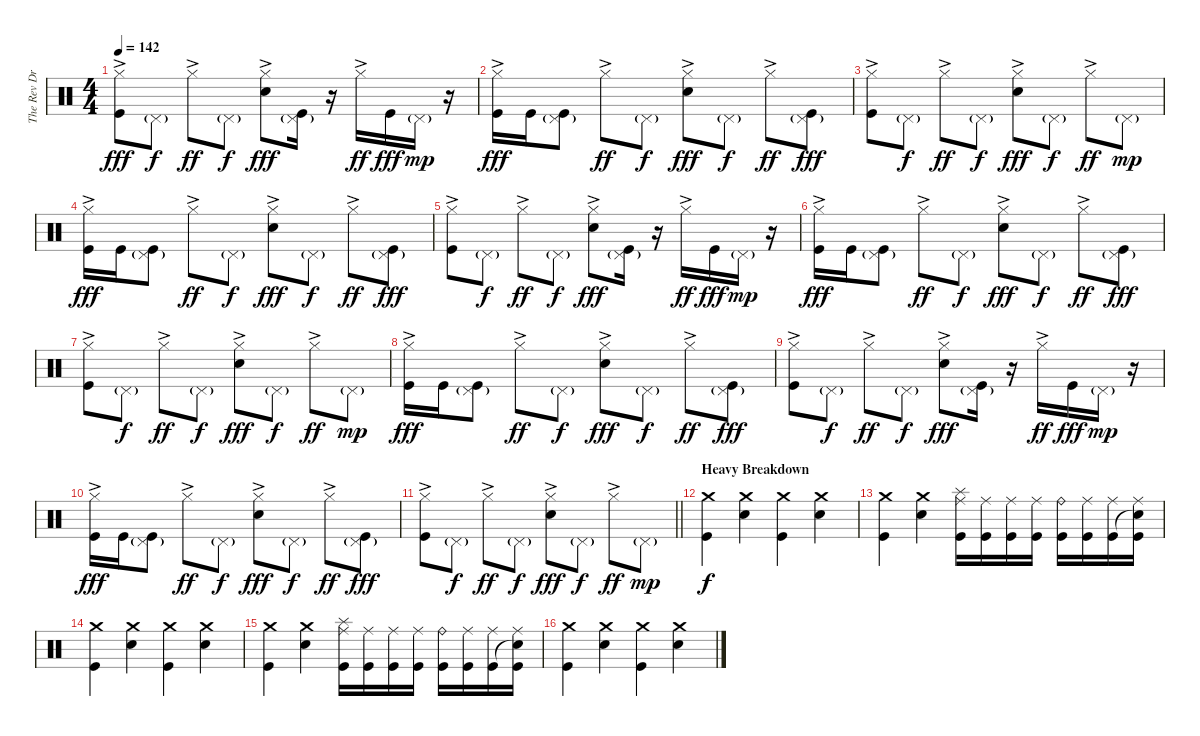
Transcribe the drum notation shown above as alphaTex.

\track ("The Rev Drums" "The Rev Dr") {instrument percussion}
\staff {score}
\articulation defaults
\ts (4 4)
\tempo 142
\clef neutral
\ks c
("Hi-Hat (closed)"{ac} "Kick (hit)").8{dy fff} "Pedal Hi-Hat (hit)"{g}.8{dy f} "Hi-Hat (closed)"{ac}.8{dy ff} "Pedal Hi-Hat (hit)"{g}.8{dy f} ("Hi-Hat (closed)"{ac} "Electric Snare (hit)").8{dy fff} ("Pedal Hi-Hat (hit)"{g} "Kick (hit)").16 r.16 "Hi-Hat (closed)"{ac}.16{dy ff} "Kick (hit)".16{dy fff} "Pedal Hi-Hat (hit)"{g}.16{dy mp} r.16 |
("Hi-Hat (closed)"{ac} "Kick (hit)").16{dy fff} "Kick (hit)".16 ("Pedal Hi-Hat (hit)"{g} "Kick (hit)").8 "Hi-Hat (closed)"{ac}.8{dy ff} "Pedal Hi-Hat (hit)"{g}.8{dy f} ("Hi-Hat (closed)"{ac} "Electric Snare (hit)").8{dy fff} "Pedal Hi-Hat (hit)"{g}.8{dy f} "Hi-Hat (closed)"{ac}.8{dy ff} ("Pedal Hi-Hat (hit)"{g} "Kick (hit)").8{dy fff} |
("Hi-Hat (closed)"{ac} "Kick (hit)").8 "Pedal Hi-Hat (hit)"{g}.8{dy f} "Hi-Hat (closed)"{ac}.8{dy ff} "Pedal Hi-Hat (hit)"{g}.8{dy f} ("Hi-Hat (closed)"{ac} "Electric Snare (hit)").8{dy fff} "Pedal Hi-Hat (hit)"{g}.8{dy f} "Hi-Hat (closed)"{ac}.8{dy ff} "Pedal Hi-Hat (hit)"{g}.8{dy mp} |
("Hi-Hat (closed)"{ac} "Kick (hit)").16{dy fff} "Kick (hit)".16 ("Pedal Hi-Hat (hit)"{g} "Kick (hit)").8 "Hi-Hat (closed)"{ac}.8{dy ff} "Pedal Hi-Hat (hit)"{g}.8{dy f} ("Hi-Hat (closed)"{ac} "Electric Snare (hit)").8{dy fff} "Pedal Hi-Hat (hit)"{g}.8{dy f} "Hi-Hat (closed)"{ac}.8{dy ff} ("Pedal Hi-Hat (hit)"{g} "Kick (hit)").8{dy fff} |
("Hi-Hat (closed)"{ac} "Kick (hit)").8 "Pedal Hi-Hat (hit)"{g}.8{dy f} "Hi-Hat (closed)"{ac}.8{dy ff} "Pedal Hi-Hat (hit)"{g}.8{dy f} ("Hi-Hat (closed)"{ac} "Electric Snare (hit)").8{dy fff} ("Pedal Hi-Hat (hit)"{g} "Kick (hit)").16 r.16 "Hi-Hat (closed)"{ac}.16{dy ff} "Kick (hit)".16{dy fff} "Pedal Hi-Hat (hit)"{g}.16{dy mp} r.16 |
("Hi-Hat (closed)"{ac} "Kick (hit)").16{dy fff} "Kick (hit)".16 ("Pedal Hi-Hat (hit)"{g} "Kick (hit)").8 "Hi-Hat (closed)"{ac}.8{dy ff} "Pedal Hi-Hat (hit)"{g}.8{dy f} ("Hi-Hat (closed)"{ac} "Electric Snare (hit)").8{dy fff} "Pedal Hi-Hat (hit)"{g}.8{dy f} "Hi-Hat (closed)"{ac}.8{dy ff} ("Pedal Hi-Hat (hit)"{g} "Kick (hit)").8{dy fff} |
("Hi-Hat (closed)"{ac} "Kick (hit)").8 "Pedal Hi-Hat (hit)"{g}.8{dy f} "Hi-Hat (closed)"{ac}.8{dy ff} "Pedal Hi-Hat (hit)"{g}.8{dy f} ("Hi-Hat (closed)"{ac} "Electric Snare (hit)").8{dy fff} "Pedal Hi-Hat (hit)"{g}.8{dy f} "Hi-Hat (closed)"{ac}.8{dy ff} "Pedal Hi-Hat (hit)"{g}.8{dy mp} |
("Hi-Hat (closed)"{ac} "Kick (hit)").16{dy fff} "Kick (hit)".16 ("Pedal Hi-Hat (hit)"{g} "Kick (hit)").8 "Hi-Hat (closed)"{ac}.8{dy ff} "Pedal Hi-Hat (hit)"{g}.8{dy f} ("Hi-Hat (closed)"{ac} "Electric Snare (hit)").8{dy fff} "Pedal Hi-Hat (hit)"{g}.8{dy f} "Hi-Hat (closed)"{ac}.8{dy ff} ("Pedal Hi-Hat (hit)"{g} "Kick (hit)").8{dy fff} |
("Hi-Hat (closed)"{ac} "Kick (hit)").8 "Pedal Hi-Hat (hit)"{g}.8{dy f} "Hi-Hat (closed)"{ac}.8{dy ff} "Pedal Hi-Hat (hit)"{g}.8{dy f} ("Hi-Hat (closed)"{ac} "Electric Snare (hit)").8{dy fff} ("Pedal Hi-Hat (hit)"{g} "Kick (hit)").16 r.16 "Hi-Hat (closed)"{ac}.16{dy ff} "Kick (hit)".16{dy fff} "Pedal Hi-Hat (hit)"{g}.16{dy mp} r.16 |
("Hi-Hat (closed)"{ac} "Kick (hit)").16{dy fff} "Kick (hit)".16 ("Pedal Hi-Hat (hit)"{g} "Kick (hit)").8 "Hi-Hat (closed)"{ac}.8{dy ff} "Pedal Hi-Hat (hit)"{g}.8{dy f} ("Hi-Hat (closed)"{ac} "Electric Snare (hit)").8{dy fff} "Pedal Hi-Hat (hit)"{g}.8{dy f} "Hi-Hat (closed)"{ac}.8{dy ff} ("Pedal Hi-Hat (hit)"{g} "Kick (hit)").8{dy fff} |
\barLineRight lightlight
("Hi-Hat (closed)"{ac} "Kick (hit)").8 "Pedal Hi-Hat (hit)"{g}.8{dy f} "Hi-Hat (closed)"{ac}.8{dy ff} "Pedal Hi-Hat (hit)"{g}.8{dy f} ("Hi-Hat (closed)"{ac} "Electric Snare (hit)").8{dy fff} "Pedal Hi-Hat (hit)"{g}.8{dy f} "Hi-Hat (closed)"{ac}.8{dy ff} "Pedal Hi-Hat (hit)"{g}.8{dy mp} |
\section ("" "Heavy Breakdown")
("Crash medium (hit)" "Kick (hit)").4{dy f} ("Crash medium (hit)" "Electric Snare (hit)").4 ("Crash medium (hit)" "Kick (hit)").4 ("Crash medium (hit)" "Electric Snare (hit)").4 |
("Crash medium (hit)" "Kick (hit)").4 ("Crash medium (hit)" "Electric Snare (hit)").4 ("Splash (hit)" "Ride (middle)" "Kick (hit)").16 ("Ride (middle)" "Kick (hit)").16 ("Ride (middle)" "Kick (hit)").16 ("Ride (middle)" "Kick (hit)").16 ("Ride (bell)" "Kick (hit)").16 ("Ride (middle)" "Kick (hit)").16 ("Ride (middle)" "Kick (hit)").16 ("Ride (middle)" "Snare (hit)"{t} "Kick (hit)").16 |
("Crash medium (hit)" "Kick (hit)").4 ("Crash medium (hit)" "Electric Snare (hit)").4 ("Crash medium (hit)" "Kick (hit)").4 ("Crash medium (hit)" "Electric Snare (hit)").4 |
("Crash medium (hit)" "Kick (hit)").4 ("Crash medium (hit)" "Electric Snare (hit)").4 ("Splash (hit)" "Ride (middle)" "Kick (hit)").16 ("Ride (middle)" "Kick (hit)").16 ("Ride (middle)" "Kick (hit)").16 ("Ride (middle)" "Kick (hit)").16 ("Ride (bell)" "Kick (hit)").16 ("Ride (middle)" "Kick (hit)").16 ("Ride (middle)" "Kick (hit)").16 ("Ride (middle)" "Snare (hit)"{t} "Kick (hit)").16 |
("Crash medium (hit)" "Kick (hit)").4 ("Crash medium (hit)" "Electric Snare (hit)").4 ("Crash medium (hit)" "Kick (hit)").4 ("Crash medium (hit)" "Electric Snare (hit)").4
